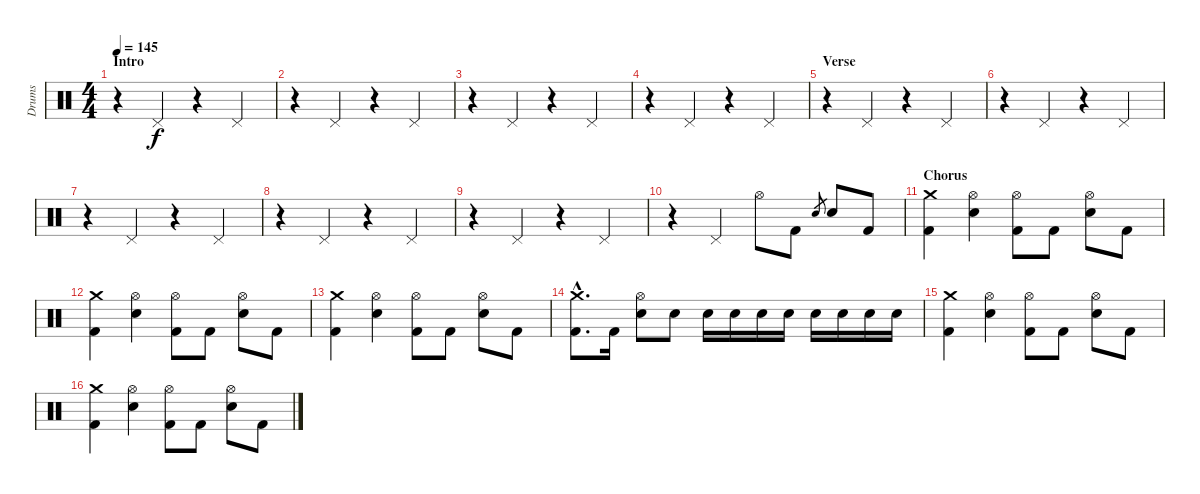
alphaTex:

\track ("Drums" "Drums") {instrument percussion}
\staff {score}
\articulation defaults
\ts (4 4)
\section ("" "Intro")
\tempo 145
\clef neutral
\ks c
r.4{dy f} "Pedal Hi-Hat (hit)".4 r.4 "Pedal Hi-Hat (hit)".4 |
r.4 "Pedal Hi-Hat (hit)".4 r.4 "Pedal Hi-Hat (hit)".4 |
r.4 "Pedal Hi-Hat (hit)".4 r.4 "Pedal Hi-Hat (hit)".4 |
r.4 "Pedal Hi-Hat (hit)".4 r.4 "Pedal Hi-Hat (hit)".4 |
\section ("" "Verse")
r.4 "Pedal Hi-Hat (hit)".4 r.4 "Pedal Hi-Hat (hit)".4 |
r.4 "Pedal Hi-Hat (hit)".4 r.4 "Pedal Hi-Hat (hit)".4 |
r.4 "Pedal Hi-Hat (hit)".4 r.4 "Pedal Hi-Hat (hit)".4 |
r.4 "Pedal Hi-Hat (hit)".4 r.4 "Pedal Hi-Hat (hit)".4 |
r.4 "Pedal Hi-Hat (hit)".4 r.4 "Pedal Hi-Hat (hit)".4 |
r.4 "Pedal Hi-Hat (hit)".4 "Hi-Hat (open)".8 "Kick (hit) 2".8 "Electric Snare (hit)".8{gr} "Electric Snare (hit)".8 "Kick (hit) 2".8 |
\section ("" "Chorus")
("Crash medium (hit)" "Kick (hit) 2").4 ("Hi-Hat (open)" "Electric Snare (hit)").4 ("Hi-Hat (open)" "Kick (hit) 2").8 "Kick (hit) 2".8 ("Hi-Hat (open)" "Electric Snare (hit)").8 "Kick (hit) 2".8 |
("Crash medium (hit)" "Kick (hit) 2").4 ("Hi-Hat (open)" "Electric Snare (hit)").4 ("Hi-Hat (open)" "Kick (hit) 2").8 "Kick (hit) 2".8 ("Hi-Hat (open)" "Electric Snare (hit)").8 "Kick (hit) 2".8 |
("Crash medium (hit)" "Kick (hit) 2").4 ("Hi-Hat (open)" "Electric Snare (hit)").4 ("Hi-Hat (open)" "Kick (hit) 2").8 "Kick (hit) 2".8 ("Hi-Hat (open)" "Electric Snare (hit)").8 "Kick (hit) 2".8 |
("Crash medium (hit)"{hac} "Kick (hit) 2"{hac}).8{d} "Kick (hit) 2".16 ("Hi-Hat (open)" "Electric Snare (hit)").8 "Electric Snare (hit)".8 "Electric Snare (hit)".16 "Electric Snare (hit)".16 "Electric Snare (hit)".16 "Electric Snare (hit)".16 "Electric Snare (hit)".16 "Electric Snare (hit)".16 "Electric Snare (hit)".16 "Electric Snare (hit)".16 |
("Crash medium (hit)" "Kick (hit) 2").4 ("Hi-Hat (open)" "Electric Snare (hit)").4 ("Hi-Hat (open)" "Kick (hit) 2").8 "Kick (hit) 2".8 ("Hi-Hat (open)" "Electric Snare (hit)").8 "Kick (hit) 2".8 |
("Crash medium (hit)" "Kick (hit) 2").4 ("Hi-Hat (open)" "Electric Snare (hit)").4 ("Hi-Hat (open)" "Kick (hit) 2").8 "Kick (hit) 2".8 ("Hi-Hat (open)" "Electric Snare (hit)").8 "Kick (hit) 2".8
